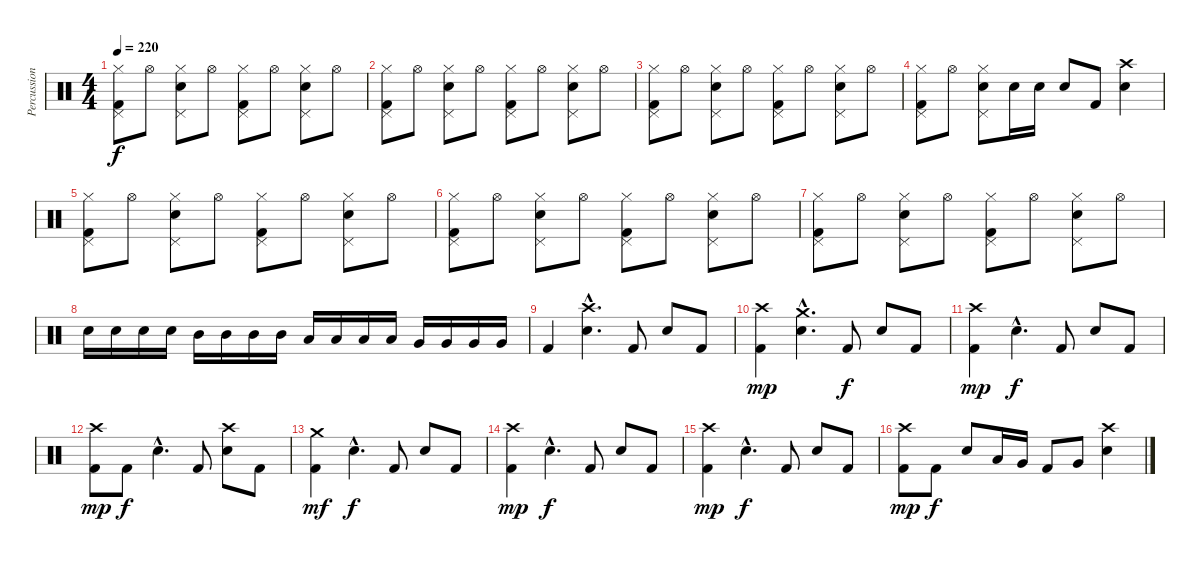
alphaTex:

\track ("Percussion" "Percussion") {instrument percussion}
\staff {score}
\articulation defaults
\ts (4 4)
\tempo 220
\clef neutral
\ks c
("Hi-Hat (closed)" "Pedal Hi-Hat (hit)" "Kick (hit) 2").8{dy f} "Hi-Hat (open)".8 ("Hi-Hat (closed)" "Pedal Hi-Hat (hit)" "Electric Snare (hit)").8 "Hi-Hat (open)".8 ("Hi-Hat (closed)" "Pedal Hi-Hat (hit)" "Kick (hit) 2").8 "Hi-Hat (open)".8 ("Hi-Hat (closed)" "Pedal Hi-Hat (hit)" "Electric Snare (hit)").8 "Hi-Hat (open)".8 |
("Hi-Hat (closed)" "Pedal Hi-Hat (hit)" "Kick (hit) 2").8 "Hi-Hat (open)".8 ("Hi-Hat (closed)" "Pedal Hi-Hat (hit)" "Electric Snare (hit)").8 "Hi-Hat (open)".8 ("Hi-Hat (closed)" "Pedal Hi-Hat (hit)" "Kick (hit) 2").8 "Hi-Hat (open)".8 ("Hi-Hat (closed)" "Pedal Hi-Hat (hit)" "Electric Snare (hit)").8 "Hi-Hat (open)".8 |
("Hi-Hat (closed)" "Pedal Hi-Hat (hit)" "Kick (hit) 2").8 "Hi-Hat (open)".8 ("Hi-Hat (closed)" "Pedal Hi-Hat (hit)" "Electric Snare (hit)").8 "Hi-Hat (open)".8 ("Hi-Hat (closed)" "Pedal Hi-Hat (hit)" "Kick (hit) 2").8 "Hi-Hat (open)".8 ("Hi-Hat (closed)" "Pedal Hi-Hat (hit)" "Electric Snare (hit)").8 "Hi-Hat (open)".8 |
("Hi-Hat (closed)" "Pedal Hi-Hat (hit)" "Kick (hit) 2").8 "Hi-Hat (open)".8 ("Hi-Hat (closed)" "Pedal Hi-Hat (hit)" "Electric Snare (hit)").8 "Electric Snare (hit)".16 "Electric Snare (hit)".16 "Electric Snare (hit)".8 "Kick (hit) 2".8 ("Crash high (hit)" "Electric Snare (hit)").4 |
("Hi-Hat (closed)" "Pedal Hi-Hat (hit)" "Kick (hit) 2").8 "Hi-Hat (open)".8 ("Hi-Hat (closed)" "Pedal Hi-Hat (hit)" "Electric Snare (hit)").8 "Hi-Hat (open)".8 ("Hi-Hat (closed)" "Pedal Hi-Hat (hit)" "Kick (hit) 2").8 "Hi-Hat (open)".8 ("Hi-Hat (closed)" "Pedal Hi-Hat (hit)" "Electric Snare (hit)").8 "Hi-Hat (open)".8 |
("Hi-Hat (closed)" "Pedal Hi-Hat (hit)" "Kick (hit) 2").8 "Hi-Hat (open)".8 ("Hi-Hat (closed)" "Pedal Hi-Hat (hit)" "Electric Snare (hit)").8 "Hi-Hat (open)".8 ("Hi-Hat (closed)" "Pedal Hi-Hat (hit)" "Kick (hit) 2").8 "Hi-Hat (open)".8 ("Hi-Hat (closed)" "Pedal Hi-Hat (hit)" "Electric Snare (hit)").8 "Hi-Hat (open)".8 |
("Hi-Hat (closed)" "Pedal Hi-Hat (hit)" "Kick (hit) 2").8 "Hi-Hat (open)".8 ("Hi-Hat (closed)" "Pedal Hi-Hat (hit)" "Electric Snare (hit)").8 "Hi-Hat (open)".8 ("Hi-Hat (closed)" "Pedal Hi-Hat (hit)" "Kick (hit) 2").8 "Hi-Hat (open)".8 ("Hi-Hat (closed)" "Pedal Hi-Hat (hit)" "Electric Snare (hit)").8 "Hi-Hat (open)".8 |
"Electric Snare (hit)".16 "Electric Snare (hit)".16 "Electric Snare (hit)".16 "Electric Snare (hit)".16 "Mid Tom (hit)".16 "Mid Tom (hit)".16 "Mid Tom (hit)".16 "Mid Tom (hit)".16 "Low Tom (hit)".16 "Low Tom (hit)".16 "Low Tom (hit)".16 "Low Tom (hit)".16 "Very Low Tom (hit)".16 "Very Low Tom (hit)".16 "Very Low Tom (hit)".16 "Very Low Tom (hit)".16 |
"Kick (hit) 2".4 ("Crash high (hit)"{hac} "Electric Snare (hit)"{hac}).4{d} "Kick (hit) 2".8 "Electric Snare (hit)".8 "Kick (hit) 2".8 |
("Crash high (hit)" "Kick (hit) 2").4{dy mp} ("Crash medium (hit)"{hac} "Electric Snare (hit)"{hac}).4{d} "Kick (hit) 2".8{dy f} "Electric Snare (hit)".8 "Kick (hit) 2".8 |
("Crash high (hit)" "Kick (hit) 2").4{dy mp} "Electric Snare (hit)"{hac}.4{d dy f} "Kick (hit) 2".8 "Electric Snare (hit)".8 "Kick (hit) 2".8 |
("Crash high (hit)" "Kick (hit) 2").8{dy mp} "Kick (hit) 2".8{dy f} "Electric Snare (hit)"{hac}.4{d} "Kick (hit) 2".8 ("Crash high (hit)" "Electric Snare (hit)").8 "Kick (hit) 2".8 |
("Crash medium (hit)" "Kick (hit) 2").4{dy mf} "Electric Snare (hit)"{hac}.4{d dy f} "Kick (hit) 2".8 "Electric Snare (hit)".8 "Kick (hit) 2".8 |
("Crash high (hit)" "Kick (hit) 2").4{dy mp} "Electric Snare (hit)"{hac}.4{d dy f} "Kick (hit) 2".8 "Electric Snare (hit)".8 "Kick (hit) 2".8 |
("Crash high (hit)" "Kick (hit) 2").4{dy mp} "Electric Snare (hit)"{hac}.4{d dy f} "Kick (hit) 2".8 "Electric Snare (hit)".8 "Kick (hit) 2".8 |
("Crash high (hit)" "Kick (hit) 2").8{dy mp} "Kick (hit) 2".8{dy f} "Electric Snare (hit)".8 "Low Tom (hit)".16 "Very Low Tom (hit)".16 "Kick (hit) 2".8 "Very Low Tom (hit)".8 ("Crash high (hit)" "Electric Snare (hit)").4
